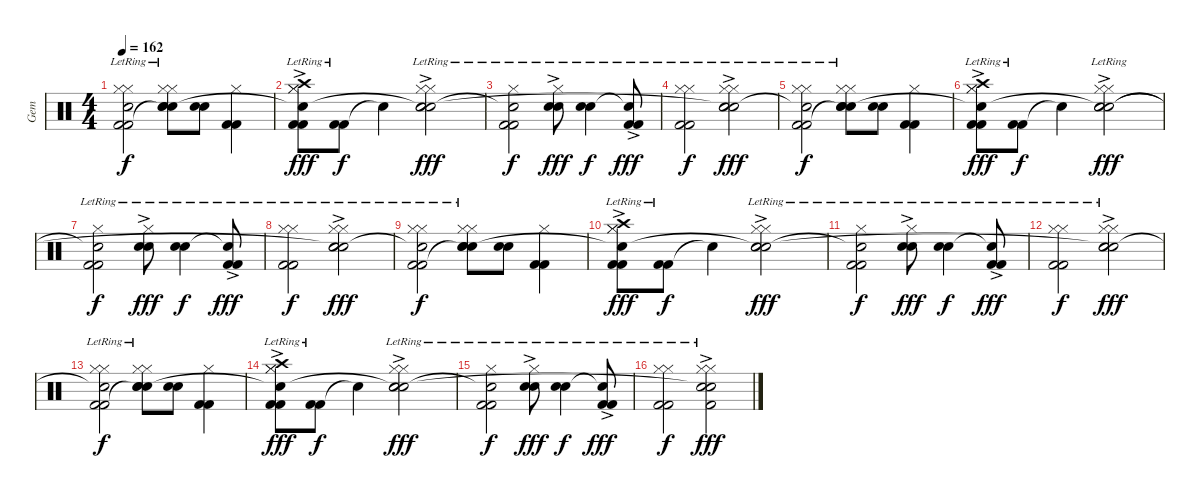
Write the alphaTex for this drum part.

\track ("Gem" "Gem") {instrument percussion}
\staff {score}
\articulation defaults
\ts (4 4)
\tempo 162
\clef neutral
\ks c
("Hi-Hat (closed)"{lr} "Hi-Hat (closed)"{lr} "Kick (hit) 2" "Snare (hit)"{t} "Kick (hit) 2"{lr}).2{dy f} ("Hi-Hat (closed)"{lr} "Hi-Hat (closed)"{lr} "Snare (hit) 2" "Snare (hit) 2"{lr} "Snare (hit)"{t}).8 ("Snare (hit) 2" "Snare (hit) 2").8 ("Hi-Hat (closed)" "Kick (hit) 2" "Kick (hit) 2").4 |
("Hi-Hat (closed)"{lr} "Hi-Hat (closed)"{lr} "Crash high (hit)"{ac lr} "Kick (hit) 2" "Snare (hit)"{t} "Kick (hit) 2"{lr}).8{dy fff} ("Kick (hit) 2" "Kick (hit) 2"{lr}).8{dy f} "Snare (hit)"{t}.4 ("Hi-Hat (closed)"{lr} "Hi-Hat (closed)"{lr} "Snare (hit) 2" "Snare (hit) 2"{ac lr} "Snare (hit)"{t}).2{dy fff} |
("Hi-Hat (closed)"{lr} "Kick (hit) 2" "Snare (hit)"{t} "Kick (hit) 2"{lr}).2{dy f} ("Hi-Hat (closed)"{lr} "Snare (hit) 2" "Snare (hit) 2"{ac lr}).8{dy fff} ("Snare (hit) 2" "Snare (hit) 2"{lr}).4{dy f} ("Kick (hit) 2" "Snare (hit)"{t} "Kick (hit) 2"{ac lr}).8{dy fff} |
("Hi-Hat (closed)"{lr} "Hi-Hat (closed)"{lr} "Kick (hit) 2" "Kick (hit) 2"{lr}).2{dy f} ("Hi-Hat (closed)"{lr} "Hi-Hat (closed)"{lr} "Snare (hit) 2" "Snare (hit) 2"{ac lr} "Snare (hit)"{t}).2{dy fff} |
("Hi-Hat (closed)"{lr} "Hi-Hat (closed)"{lr} "Kick (hit) 2" "Snare (hit)"{t} "Kick (hit) 2"{lr}).2{dy f} ("Hi-Hat (closed)"{lr} "Hi-Hat (closed)"{lr} "Snare (hit) 2" "Snare (hit) 2"{lr} "Snare (hit)"{t}).8 ("Snare (hit) 2" "Snare (hit) 2").8 ("Hi-Hat (closed)" "Kick (hit) 2" "Kick (hit) 2").4 |
("Hi-Hat (closed)"{lr} "Hi-Hat (closed)"{lr} "Crash high (hit)"{ac lr} "Kick (hit) 2" "Snare (hit)"{t} "Kick (hit) 2"{lr}).8{dy fff} ("Kick (hit) 2" "Kick (hit) 2"{lr}).8{dy f} "Snare (hit)"{t}.4 ("Hi-Hat (closed)"{lr} "Hi-Hat (closed)"{lr} "Snare (hit) 2" "Snare (hit) 2"{ac lr} "Snare (hit)"{t}).2{dy fff} |
("Hi-Hat (closed)"{lr} "Kick (hit) 2" "Snare (hit)"{t} "Kick (hit) 2"{lr}).2{dy f} ("Hi-Hat (closed)"{lr} "Snare (hit) 2" "Snare (hit) 2"{ac lr}).8{dy fff} ("Snare (hit) 2" "Snare (hit) 2"{lr}).4{dy f} ("Kick (hit) 2" "Snare (hit)"{t} "Kick (hit) 2"{ac lr}).8{dy fff} |
("Hi-Hat (closed)"{lr} "Hi-Hat (closed)"{lr} "Kick (hit) 2" "Kick (hit) 2"{lr}).2{dy f} ("Hi-Hat (closed)"{lr} "Hi-Hat (closed)"{lr} "Snare (hit) 2" "Snare (hit) 2"{ac lr} "Snare (hit)"{t}).2{dy fff} |
("Hi-Hat (closed)"{lr} "Hi-Hat (closed)"{lr} "Kick (hit) 2" "Snare (hit)"{t} "Kick (hit) 2"{lr}).2{dy f} ("Hi-Hat (closed)"{lr} "Hi-Hat (closed)"{lr} "Snare (hit) 2" "Snare (hit) 2"{lr} "Snare (hit)"{t}).8 ("Snare (hit) 2" "Snare (hit) 2").8 ("Hi-Hat (closed)" "Kick (hit) 2" "Kick (hit) 2").4 |
("Hi-Hat (closed)"{lr} "Hi-Hat (closed)"{lr} "Crash high (hit)"{ac lr} "Kick (hit) 2" "Snare (hit)"{t} "Kick (hit) 2"{lr}).8{dy fff} ("Kick (hit) 2" "Kick (hit) 2"{lr}).8{dy f} "Snare (hit)"{t}.4 ("Hi-Hat (closed)"{lr} "Hi-Hat (closed)"{lr} "Snare (hit) 2" "Snare (hit) 2"{ac lr} "Snare (hit)"{t}).2{dy fff} |
("Hi-Hat (closed)"{lr} "Kick (hit) 2" "Snare (hit)"{t} "Kick (hit) 2"{lr}).2{dy f} ("Hi-Hat (closed)"{lr} "Snare (hit) 2" "Snare (hit) 2"{ac lr}).8{dy fff} ("Snare (hit) 2" "Snare (hit) 2"{lr}).4{dy f} ("Kick (hit) 2" "Snare (hit)"{t} "Kick (hit) 2"{ac lr}).8{dy fff} |
("Hi-Hat (closed)"{lr} "Hi-Hat (closed)"{lr} "Kick (hit) 2" "Kick (hit) 2"{lr}).2{dy f} ("Hi-Hat (closed)"{lr} "Hi-Hat (closed)"{lr} "Snare (hit) 2" "Snare (hit) 2"{ac lr} "Snare (hit)"{t}).2{dy fff} |
("Hi-Hat (closed)"{lr} "Hi-Hat (closed)"{lr} "Kick (hit) 2" "Snare (hit)"{t} "Kick (hit) 2"{lr}).2{dy f} ("Hi-Hat (closed)"{lr} "Hi-Hat (closed)"{lr} "Snare (hit) 2" "Snare (hit) 2"{lr} "Snare (hit)"{t}).8 ("Snare (hit) 2" "Snare (hit) 2").8 ("Hi-Hat (closed)" "Kick (hit) 2" "Kick (hit) 2").4 |
("Hi-Hat (closed)"{lr} "Hi-Hat (closed)"{lr} "Crash high (hit)"{ac lr} "Kick (hit) 2" "Snare (hit)"{t} "Kick (hit) 2"{lr}).8{dy fff} ("Kick (hit) 2" "Kick (hit) 2"{lr}).8{dy f} "Snare (hit)"{t}.4 ("Hi-Hat (closed)"{lr} "Hi-Hat (closed)"{lr} "Snare (hit) 2" "Snare (hit) 2"{ac lr} "Snare (hit)"{t}).2{dy fff} |
("Hi-Hat (closed)"{lr} "Kick (hit) 2" "Snare (hit)"{t} "Kick (hit) 2"{lr}).2{dy f} ("Hi-Hat (closed)"{lr} "Snare (hit) 2" "Snare (hit) 2"{ac lr}).8{dy fff} ("Snare (hit) 2" "Snare (hit) 2"{lr}).4{dy f} ("Kick (hit) 2" "Snare (hit)"{t} "Kick (hit) 2"{ac lr}).8{dy fff} |
("Hi-Hat (closed)"{lr} "Hi-Hat (closed)"{lr} "Kick (hit) 2" "Kick (hit) 2"{lr}).2{dy f} ("Hi-Hat (closed)"{lr} "Hi-Hat (closed)"{lr} "Kick (hit) 2" "Snare (hit) 2"{ac lr} "Snare (hit)"{t}).2{dy fff}
